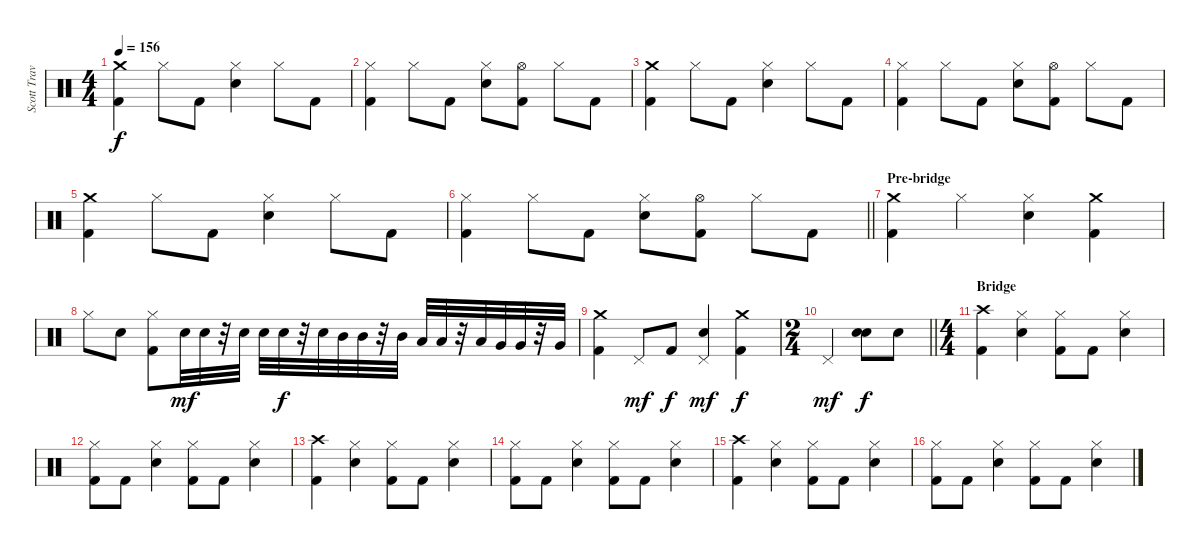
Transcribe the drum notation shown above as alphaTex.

\track ("Scott Travis" "Scott Trav") {instrument percussion}
\staff {score}
\articulation defaults
\ts (4 4)
\tempo 156
\clef neutral
\ks c
("Kick (hit) 2" "Crash medium (hit)").4{dy f} "Hi-Hat (closed)".8 "Kick (hit) 2".8 ("Hi-Hat (closed)" "Snare (hit) 2").4 "Hi-Hat (closed)".8 "Kick (hit) 2".8 |
("Hi-Hat (closed)" "Kick (hit) 2").4 "Hi-Hat (closed)".8 "Kick (hit) 2".8 ("Hi-Hat (closed)" "Snare (hit) 2").8 ("Hi-Hat (open)" "Kick (hit) 2").8 "Hi-Hat (closed)".8 "Kick (hit) 2".8 |
("Crash medium (hit)" "Kick (hit) 2").4 "Hi-Hat (closed)".8 "Kick (hit) 2".8 ("Hi-Hat (closed)" "Snare (hit) 2").4 "Hi-Hat (closed)".8 "Kick (hit) 2".8 |
("Hi-Hat (closed)" "Kick (hit) 2").4 "Hi-Hat (closed)".8 "Kick (hit) 2".8 ("Hi-Hat (closed)" "Snare (hit) 2").8 ("Hi-Hat (open)" "Kick (hit) 2").8 "Hi-Hat (closed)".8 "Kick (hit) 2".8 |
("Crash medium (hit)" "Kick (hit) 2").4 "Hi-Hat (closed)".8 "Kick (hit) 2".8 ("Hi-Hat (closed)" "Snare (hit) 2").4 "Hi-Hat (closed)".8 "Kick (hit) 2".8 |
\barLineRight lightlight
("Hi-Hat (closed)" "Kick (hit) 2").4 "Hi-Hat (closed)".8 "Kick (hit) 2".8 ("Hi-Hat (closed)" "Snare (hit) 2").8 ("Hi-Hat (open)" "Kick (hit) 2").8 "Hi-Hat (closed)".8 "Kick (hit) 2".8 |
\section ("" "Pre-bridge")
("Kick (hit) 2" "Crash medium (hit)").4 "Hi-Hat (closed)".4 ("Hi-Hat (closed)" "Snare (hit) 2").4 ("Crash medium (hit)" "Kick (hit) 2").4 |
"Hi-Hat (closed)".8 "Snare (hit) 2".8 ("Hi-Hat (closed)" "Kick (hit) 2").8 "Snare (hit) 2".32{dy mf} "Snare (hit) 2".32 r.32 "Snare (hit) 2".32 "Snare (hit) 2".32 "Snare (hit) 2".32{dy f} r.32 "Snare (hit) 2".32 "Mid Tom (hit)".32 "Mid Tom (hit)".32 r.32 "Mid Tom (hit)".32 "Low Tom (hit)".32 "Low Tom (hit)".32 r.32 "Low Tom (hit)".32 "Very Low Tom (hit)".32 "Very Low Tom (hit)".32 r.32 "Very Low Tom (hit)".32 |
("Kick (hit) 2" "Crash medium (hit)").4 "Pedal Hi-Hat (hit)".8{dy mf} "Kick (hit) 2".8{dy f} ("Snare (hit) 2" "Pedal Hi-Hat (hit)").4{dy mf} ("Kick (hit) 2" "Crash medium (hit)").4{dy f} |
\ts (2 4)
\barLineRight lightlight "Pedal Hi-Hat (hit)".4{dy mf}
("Snare (hit) 2" "Snare (hit) 2").8{dy f} "Snare (hit) 2".8 |
\ts (4 4)
\section ("" "Bridge")
("Kick (hit) 2" "Crash high (hit)").4 ("Hi-Hat (closed)" "Snare (hit) 2").4 ("Hi-Hat (closed)" "Kick (hit) 2").8 "Kick (hit) 2".8 ("Hi-Hat (closed)" "Snare (hit) 2").4 |
("Kick (hit) 2" "Hi-Hat (closed)").8 "Kick (hit) 2".8 ("Hi-Hat (closed)" "Snare (hit) 2").4 ("Hi-Hat (closed)" "Kick (hit) 2").8 "Kick (hit) 2".8 ("Snare (hit) 2" "Hi-Hat (closed)").4 |
("Kick (hit) 2" "Crash high (hit)").4 ("Hi-Hat (closed)" "Snare (hit) 2").4 ("Kick (hit) 2" "Hi-Hat (closed)").8 "Kick (hit) 2".8 ("Snare (hit) 2" "Hi-Hat (closed)").4 |
("Kick (hit) 2" "Hi-Hat (closed)").8 "Kick (hit) 2".8 ("Hi-Hat (closed)" "Snare (hit) 2").4 ("Kick (hit) 2" "Hi-Hat (closed)").8 "Kick (hit) 2".8 ("Snare (hit) 2" "Hi-Hat (closed)").4 |
("Crash high (hit)" "Kick (hit) 2").4 ("Snare (hit) 2" "Hi-Hat (closed)").4 ("Kick (hit) 2" "Hi-Hat (closed)").8 "Kick (hit) 2".8 ("Hi-Hat (closed)" "Snare (hit) 2").4 |
("Hi-Hat (closed)" "Kick (hit) 2").8 "Kick (hit) 2".8 ("Snare (hit) 2" "Hi-Hat (closed)").4 ("Hi-Hat (closed)" "Kick (hit) 2").8 "Kick (hit) 2".8 ("Hi-Hat (closed)" "Snare (hit) 2").4
